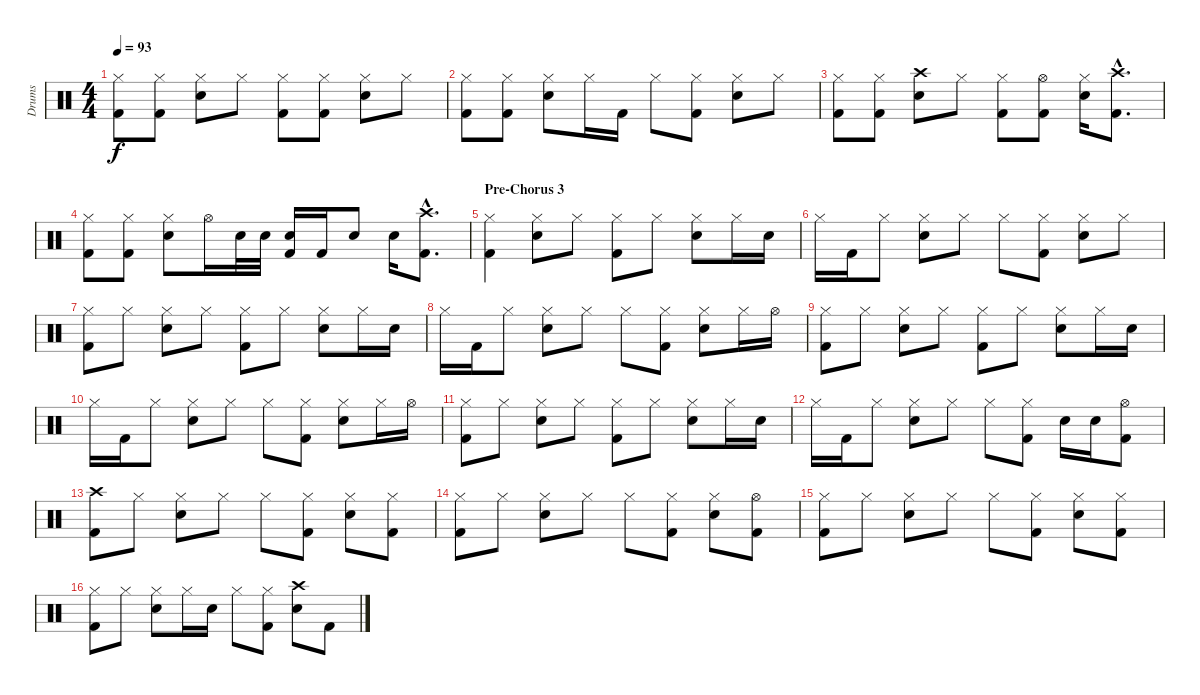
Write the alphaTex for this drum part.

\track ("Drums" "Drums") {instrument percussion}
\staff {score}
\articulation defaults
\ts (4 4)
\tempo 93
\clef neutral
\ks c
("Hi-Hat (closed)" "Kick (hit) 2").8{dy f} ("Hi-Hat (closed)" "Kick (hit) 2").8 ("Hi-Hat (closed)" "Electric Snare (hit)").8 "Hi-Hat (closed)".8 ("Hi-Hat (closed)" "Kick (hit) 2").8 ("Hi-Hat (closed)" "Kick (hit) 2").8 ("Hi-Hat (closed)" "Electric Snare (hit)").8 "Hi-Hat (closed)".8 |
("Hi-Hat (closed)" "Kick (hit) 2").8 ("Hi-Hat (closed)" "Kick (hit) 2").8 ("Hi-Hat (closed)" "Electric Snare (hit)").8 "Hi-Hat (closed)".16 "Kick (hit) 2".16 "Hi-Hat (closed)".8 ("Hi-Hat (closed)" "Kick (hit) 2").8 ("Hi-Hat (closed)" "Electric Snare (hit)").8 "Hi-Hat (closed)".8 |
("Hi-Hat (closed)" "Kick (hit) 2").8 ("Hi-Hat (closed)" "Kick (hit) 2").8 ("Crash high (hit)" "Electric Snare (hit)").8 "Hi-Hat (closed)".8 ("Hi-Hat (closed)" "Kick (hit) 2").8 ("Hi-Hat (open)" "Kick (hit) 2").8 ("Hi-Hat (closed)" "Electric Snare (hit)").16 ("Crash high (hit)"{hac} "Kick (hit) 2"{hac}).8{d} |
("Hi-Hat (closed)" "Kick (hit) 2").8 ("Hi-Hat (closed)" "Kick (hit) 2").8 ("Hi-Hat (closed)" "Electric Snare (hit)").8 "Hi-Hat (open)".16 "Electric Snare (hit)".32 "Electric Snare (hit)".32 ("Electric Snare (hit)" "Kick (hit) 2").16 "Kick (hit) 2".16 "Electric Snare (hit)".8 "Electric Snare (hit)".16 ("Crash high (hit)"{hac} "Kick (hit) 2"{hac}).8{d} |
\section ("" "Pre-Chorus 3")
("Hi-Hat (closed)" "Kick (hit) 2").4 ("Hi-Hat (closed)" "Electric Snare (hit)").8 "Hi-Hat (closed)".8 ("Hi-Hat (closed)" "Kick (hit) 2").8 "Hi-Hat (closed)".8 ("Hi-Hat (closed)" "Electric Snare (hit)").8 "Hi-Hat (closed)".16 "Electric Snare (hit)".16 |
"Hi-Hat (closed)".16 "Kick (hit) 2".16 "Hi-Hat (closed)".8 ("Hi-Hat (closed)" "Electric Snare (hit)").8 "Hi-Hat (closed)".8 "Hi-Hat (closed)".8 ("Hi-Hat (closed)" "Kick (hit) 2").8 ("Hi-Hat (closed)" "Electric Snare (hit)").8 "Hi-Hat (closed)".8 |
("Hi-Hat (closed)" "Kick (hit) 2").8 "Hi-Hat (closed)".8 ("Hi-Hat (closed)" "Electric Snare (hit)").8 "Hi-Hat (closed)".8 ("Hi-Hat (closed)" "Kick (hit) 2").8 "Hi-Hat (closed)".8 ("Hi-Hat (closed)" "Electric Snare (hit)").8 "Hi-Hat (closed)".16 "Electric Snare (hit)".16 |
"Hi-Hat (closed)".16 "Kick (hit) 2".16 "Hi-Hat (closed)".8 ("Hi-Hat (closed)" "Electric Snare (hit)").8 "Hi-Hat (closed)".8 "Hi-Hat (closed)".8 ("Hi-Hat (closed)" "Kick (hit) 2").8 ("Hi-Hat (closed)" "Electric Snare (hit)").8 "Hi-Hat (closed)".16 "Hi-Hat (open)".16 |
("Hi-Hat (closed)" "Kick (hit) 2").8 "Hi-Hat (closed)".8 ("Hi-Hat (closed)" "Electric Snare (hit)").8 "Hi-Hat (closed)".8 ("Hi-Hat (closed)" "Kick (hit) 2").8 "Hi-Hat (closed)".8 ("Hi-Hat (closed)" "Electric Snare (hit)").8 "Hi-Hat (closed)".16 "Electric Snare (hit)".16 |
"Hi-Hat (closed)".16 "Kick (hit) 2".16 "Hi-Hat (closed)".8 ("Hi-Hat (closed)" "Electric Snare (hit)").8 "Hi-Hat (closed)".8 "Hi-Hat (closed)".8 ("Hi-Hat (closed)" "Kick (hit) 2").8 ("Hi-Hat (closed)" "Electric Snare (hit)").8 "Hi-Hat (closed)".16 "Hi-Hat (open)".16 |
("Hi-Hat (closed)" "Kick (hit) 2").8 "Hi-Hat (closed)".8 ("Hi-Hat (closed)" "Electric Snare (hit)").8 "Hi-Hat (closed)".8 ("Hi-Hat (closed)" "Kick (hit) 2").8 "Hi-Hat (closed)".8 ("Hi-Hat (closed)" "Electric Snare (hit)").8 "Hi-Hat (closed)".16 "Electric Snare (hit)".16 |
"Hi-Hat (closed)".16 "Kick (hit) 2".16 "Hi-Hat (closed)".8 ("Hi-Hat (closed)" "Electric Snare (hit)").8 "Hi-Hat (closed)".8 "Hi-Hat (closed)".8 ("Hi-Hat (closed)" "Kick (hit) 2").8 "Electric Snare (hit)".16 "Electric Snare (hit)".16 ("Hi-Hat (open)" "Kick (hit) 2").8 |
("Crash high (hit)" "Kick (hit) 2").8 "Hi-Hat (closed)".8 ("Hi-Hat (closed)" "Electric Snare (hit)").8 "Hi-Hat (closed)".8 "Hi-Hat (closed)".8 ("Hi-Hat (closed)" "Kick (hit) 2").8 ("Hi-Hat (closed)" "Electric Snare (hit)").8 ("Hi-Hat (closed)" "Kick (hit) 2").8 |
("Hi-Hat (closed)" "Kick (hit) 2").8 "Hi-Hat (closed)".8 ("Hi-Hat (closed)" "Electric Snare (hit)").8 "Hi-Hat (closed)".8 "Hi-Hat (closed)".8 ("Hi-Hat (closed)" "Kick (hit) 2").8 ("Hi-Hat (closed)" "Electric Snare (hit)").8 ("Hi-Hat (open)" "Kick (hit) 2").8 |
("Hi-Hat (closed)" "Kick (hit) 2").8 "Hi-Hat (closed)".8 ("Hi-Hat (closed)" "Electric Snare (hit)").8 "Hi-Hat (closed)".8 "Hi-Hat (closed)".8 ("Hi-Hat (closed)" "Kick (hit) 2").8 ("Hi-Hat (closed)" "Electric Snare (hit)").8 ("Hi-Hat (closed)" "Kick (hit) 2").8 |
("Hi-Hat (closed)" "Kick (hit) 2").8 "Hi-Hat (closed)".8 ("Hi-Hat (closed)" "Electric Snare (hit)").8 "Hi-Hat (closed)".16 "Electric Snare (hit)".16 "Hi-Hat (closed)".8 ("Hi-Hat (closed)" "Kick (hit) 2").8 ("Crash high (hit)" "Electric Snare (hit)").8 "Kick (hit) 2".8
